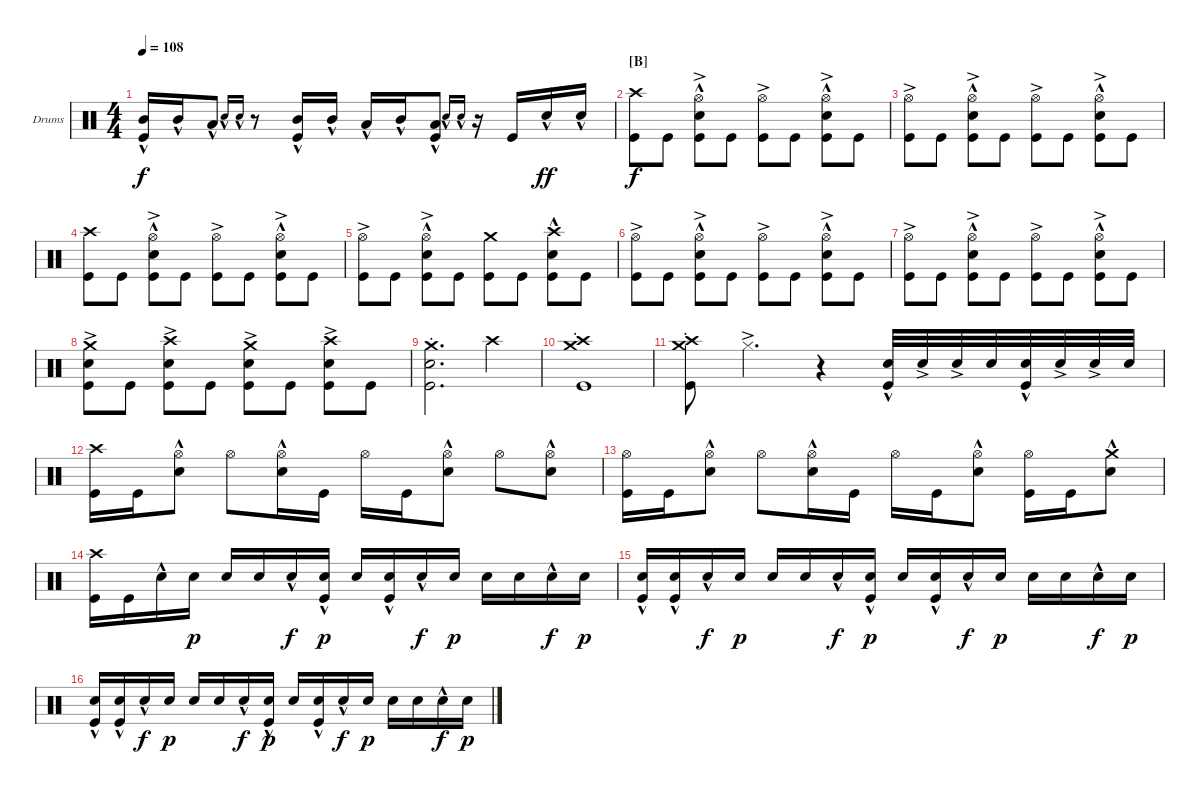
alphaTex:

\defaultSystemsLayout 4
\bracketExtendMode groupsimilarinstruments
\firstSystemTrackNameOrientation horizontal
\otherSystemsTrackNameOrientation horizontal
\track ("Drumkit " "Drums") {instrument percussion}
\staff {score}
\articulation defaults
\ts (4 4)
\tempo 108
\clef neutral
\ks c
("Kick (hit)" "Mid Tom (hit)"{hac}).16{dy f} "Mid Tom (hit)"{hac}.16 "Low Tom (hit)"{hac}.8 "Snare (hit) 2"{hac}.16{gr onbeat} "Snare (hit) 2"{hac}.16{gr onbeat} r.8 ("Mid Tom (hit)"{hac} "Kick (hit)").16 "Mid Tom (hit)"{hac}.16 "Low Tom (hit)"{hac}.16 "Mid Tom (hit)"{hac}.16 ("Low Tom (hit)"{hac} "Kick (hit)").8 "Snare (hit) 2"{hac}.16{gr onbeat} "Snare (hit) 2"{hac}.16{gr onbeat} r.16 "Kick (hit)".16 "Snare (hit) 2"{hac}.16{dy ff} "Snare (hit) 2"{hac}.16 |
\section ("B" "")
("Kick (hit)" "Crash high (hit)").8{dy f} "Kick (hit)".8 ("Kick (hit)" "Snare (hit) 2"{hac} "Hi-Hat (open)"{ac}).8 "Kick (hit)".8 ("Kick (hit)" "Hi-Hat (open)"{ac}).8 "Kick (hit)".8 ("Kick (hit)" "Snare (hit) 2"{hac} "Hi-Hat (open)"{ac}).8 "Kick (hit)".8 |
("Kick (hit)" "Hi-Hat (open)"{ac}).8 "Kick (hit)".8 ("Kick (hit)" "Snare (hit) 2"{hac} "Hi-Hat (open)"{ac}).8 "Kick (hit)".8 ("Kick (hit)" "Hi-Hat (open)"{ac}).8 "Kick (hit)".8 ("Kick (hit)" "Snare (hit) 2"{hac} "Hi-Hat (open)"{ac}).8 "Kick (hit)".8 |
("Kick (hit)" "Crash high (hit)").8 "Kick (hit)".8 ("Kick (hit)" "Snare (hit) 2"{hac} "Hi-Hat (open)"{ac}).8 "Kick (hit)".8 ("Kick (hit)" "Hi-Hat (open)"{ac}).8 "Kick (hit)".8 ("Kick (hit)" "Snare (hit) 2"{hac} "Hi-Hat (open)"{ac}).8 "Kick (hit)".8 |
("Kick (hit)" "Hi-Hat (open)"{ac}).8 "Kick (hit)".8 ("Kick (hit)" "Snare (hit) 2"{hac} "Hi-Hat (open)"{ac}).8 "Kick (hit)".8 ("Kick (hit)" "Crash medium (hit)").8 "Kick (hit)".8 ("Kick (hit)" "Snare (hit) 2"{hac} "Crash high (hit)").8 "Kick (hit)".8 |
("Kick (hit)" "Hi-Hat (open)"{ac}).8 "Kick (hit)".8 ("Kick (hit)" "Snare (hit) 2"{hac} "Hi-Hat (open)"{ac}).8 "Kick (hit)".8 ("Kick (hit)" "Hi-Hat (open)"{ac}).8 "Kick (hit)".8 ("Kick (hit)" "Snare (hit) 2"{hac} "Hi-Hat (open)"{ac}).8 "Kick (hit)".8 |
("Kick (hit)" "Hi-Hat (open)"{ac}).8 "Kick (hit)".8 ("Kick (hit)" "Snare (hit) 2"{hac} "Hi-Hat (open)"{ac}).8 "Kick (hit)".8 ("Kick (hit)" "Hi-Hat (open)"{ac}).8 "Kick (hit)".8 ("Kick (hit)" "Snare (hit) 2"{hac} "Hi-Hat (open)"{ac}).8 "Kick (hit)".8 |
("Kick (hit)" "Snare (hit) 2"{ac} "Crash medium (hit)").8 "Kick (hit)".8 ("Kick (hit)" "Snare (hit) 2"{ac} "Crash high (hit)").8 "Kick (hit)".8 ("Kick (hit)" "Snare (hit) 2"{ac} "Crash medium (hit)").8 "Kick (hit)".8 ("Kick (hit)" "Snare (hit) 2"{ac} "Crash high (hit)").8 "Kick (hit)".8 |
("Kick (hit)" "Crash medium (hit)"{st} "Snare (hit) 2").2{d} "Crash high (hit)".4 |
("Kick (hit)"{st} "Crash medium (hit)"{st} "Crash high (hit)"{st}).1 |
("Kick (hit)"{st} "Crash medium (hit)"{st} "Crash high (hit)"{st}).8 "Hi-Hat (closed)"{ac}.4{d} r.4 ("Snare (hit) 2"{hac} "Kick (hit)").32 "Snare (hit) 2"{ac}.32 "Snare (hit) 2"{ac}.32 "Snare (hit) 2".32 ("Snare (hit) 2"{hac} "Kick (hit)").32 "Snare (hit) 2"{ac}.32 "Snare (hit) 2"{ac}.32 "Snare (hit) 2".32 |
("Kick (hit)" "Crash high (hit)").16 "Kick (hit)".16 ("Snare (hit) 2"{hac} "Hi-Hat (open)").8 "Hi-Hat (open)".8 ("Snare (hit) 2"{hac} "Hi-Hat (open)").16 "Kick (hit)".16 "Hi-Hat (open)".16 "Kick (hit)".16 ("Hi-Hat (open)" "Snare (hit) 2"{hac}).8 "Hi-Hat (open)".8 ("Hi-Hat (open)" "Snare (hit) 2"{hac}).8 |
("Kick (hit)" "Hi-Hat (open)").16 "Kick (hit)".16 ("Snare (hit) 2"{hac} "Hi-Hat (open)").8 "Hi-Hat (open)".8 ("Snare (hit) 2"{hac} "Hi-Hat (open)").16 "Kick (hit)".16 "Hi-Hat (open)".16 "Kick (hit)".16 ("Hi-Hat (open)" "Snare (hit) 2"{hac}).8 ("Hi-Hat (open)" "Kick (hit)").16 "Kick (hit)".16 ("Snare (hit) 2"{hac} "Crash medium (hit)").8 |
("Kick (hit)" "Crash high (hit)").16 "Kick (hit)".16 "Snare (hit) 2"{hac}.16 "Snare (hit) 2".16{dy p} "Snare (hit) 2".16 "Snare (hit) 2".16 "Snare (hit) 2"{hac}.16{dy f} ("Kick (hit)"{hac} "Snare (hit) 2").16{dy p} "Snare (hit) 2".16 ("Kick (hit)"{hac} "Snare (hit) 2").16 "Snare (hit) 2"{hac}.16{dy f} "Snare (hit) 2".16{dy p} "Snare (hit) 2".16 "Snare (hit) 2".16 "Snare (hit) 2"{hac}.16{dy f} "Snare (hit) 2".16{dy p} |
("Kick (hit)"{hac} "Snare (hit) 2").16 ("Kick (hit)"{hac} "Snare (hit) 2").16 "Snare (hit) 2"{hac}.16{dy f} "Snare (hit) 2".16{dy p} "Snare (hit) 2".16 "Snare (hit) 2".16 "Snare (hit) 2"{hac}.16{dy f} ("Kick (hit)"{hac} "Snare (hit) 2").16{dy p} "Snare (hit) 2".16 ("Kick (hit)"{hac} "Snare (hit) 2").16 "Snare (hit) 2"{hac}.16{dy f} "Snare (hit) 2".16{dy p} "Snare (hit) 2".16 "Snare (hit) 2".16 "Snare (hit) 2"{hac}.16{dy f} "Snare (hit) 2".16{dy p} |
("Kick (hit)"{hac} "Snare (hit) 2").16 ("Kick (hit)"{hac} "Snare (hit) 2").16 "Snare (hit) 2"{hac}.16{dy f} "Snare (hit) 2".16{dy p} "Snare (hit) 2".16 "Snare (hit) 2".16 "Snare (hit) 2"{hac}.16{dy f} ("Kick (hit)"{hac} "Snare (hit) 2").16{dy p} "Snare (hit) 2".16 ("Kick (hit)"{hac} "Snare (hit) 2").16 "Snare (hit) 2"{hac}.16{dy f} "Snare (hit) 2".16{dy p} "Snare (hit) 2".16 "Snare (hit) 2".16 "Snare (hit) 2"{hac}.16{dy f} "Snare (hit) 2".16{dy p}
